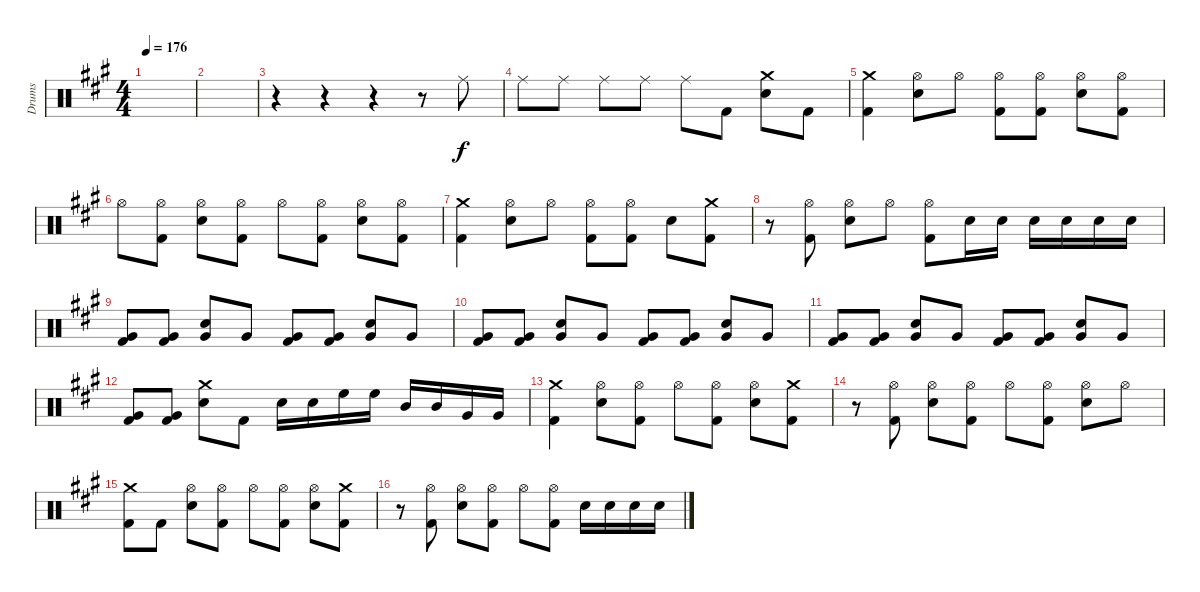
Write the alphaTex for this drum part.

\track ("Drums" "Drums") {instrument percussion}
\staff {score}
\articulation defaults
\ts (4 4)
\tempo 176
\clef neutral
\ks a
|
|
r.4 r.4 r.4 r.8 "Ride (middle)".8 |
"Ride (middle)".8 "Ride (middle)".8 "Ride (middle)".8 "Ride (middle)".8 "Ride (middle)".8 "Kick (hit) 2".8 ("Crash medium (hit)" "Electric Snare (hit)").8 "Kick (hit) 2".8 |
("Crash medium (hit)" "Kick (hit) 2").4 ("Hi-Hat (open)" "Electric Snare (hit)").8 "Hi-Hat (open)".8 ("Hi-Hat (open)" "Kick (hit) 2").8 ("Hi-Hat (open)" "Kick (hit) 2").8 ("Hi-Hat (open)" "Electric Snare (hit)").8 ("Hi-Hat (open)" "Kick (hit) 2").8 |
"Hi-Hat (open)".8 ("Hi-Hat (open)" "Kick (hit) 2").8 ("Hi-Hat (open)" "Electric Snare (hit)").8 ("Hi-Hat (open)" "Kick (hit) 2").8 "Hi-Hat (open)".8 ("Hi-Hat (open)" "Kick (hit) 2").8 ("Hi-Hat (open)" "Electric Snare (hit)").8 ("Hi-Hat (open)" "Kick (hit) 2").8 |
("Crash medium (hit)" "Kick (hit) 2").4 ("Hi-Hat (open)" "Electric Snare (hit)").8 "Hi-Hat (open)".8 ("Hi-Hat (open)" "Kick (hit) 2").8 ("Hi-Hat (open)" "Kick (hit) 2").8 "Electric Snare (hit)".8 ("Crash medium (hit)" "Kick (hit) 2").8 |
r.8 ("Hi-Hat (open)" "Kick (hit) 2").8 ("Hi-Hat (open)" "Electric Snare (hit)").8 "Hi-Hat (open)".8 ("Hi-Hat (open)" "Kick (hit) 2").8 "Electric Snare (hit)".16 "Electric Snare (hit)".16 "Electric Snare (hit)".16 "Electric Snare (hit)".16 "Electric Snare (hit)".16 "Electric Snare (hit)".16 |
("Very Low Tom (hit)" "Kick (hit) 2").8 ("Very Low Tom (hit)" "Kick (hit) 2").8 ("Electric Snare (hit)" "Very Low Tom (hit)").8 "Very Low Tom (hit)".8 ("Very Low Tom (hit)" "Kick (hit) 2").8 ("Very Low Tom (hit)" "Kick (hit) 2").8 ("Electric Snare (hit)" "Very Low Tom (hit)").8 "Very Low Tom (hit)".8 |
("Very Low Tom (hit)" "Kick (hit) 2").8 ("Very Low Tom (hit)" "Kick (hit) 2").8 ("Electric Snare (hit)" "Very Low Tom (hit)").8 "Very Low Tom (hit)".8 ("Very Low Tom (hit)" "Kick (hit) 2").8 ("Very Low Tom (hit)" "Kick (hit) 2").8 ("Electric Snare (hit)" "Very Low Tom (hit)").8 "Very Low Tom (hit)".8 |
("Very Low Tom (hit)" "Kick (hit) 2").8 ("Very Low Tom (hit)" "Kick (hit) 2").8 ("Electric Snare (hit)" "Very Low Tom (hit)").8 "Very Low Tom (hit)".8 ("Very Low Tom (hit)" "Kick (hit) 2").8 ("Very Low Tom (hit)" "Kick (hit) 2").8 ("Electric Snare (hit)" "Very Low Tom (hit)").8 "Very Low Tom (hit)".8 |
("Very Low Tom (hit)" "Kick (hit) 2").8 ("Very Low Tom (hit)" "Kick (hit) 2").8 ("Crash medium (hit)" "Electric Snare (hit)").8 "Kick (hit) 2".8 "Electric Snare (hit)".16 "Electric Snare (hit)".16 "High Floor Tom (hit)".16 "High Floor Tom (hit)".16 "Mid Tom (hit)".16 "Mid Tom (hit)".16 "Very Low Tom (hit)".16 "Very Low Tom (hit)".16 |
("Crash medium (hit)" "Kick (hit) 2").4 ("Hi-Hat (open)" "Electric Snare (hit)").8 ("Hi-Hat (open)" "Kick (hit) 2").8 "Hi-Hat (open)".8 ("Hi-Hat (open)" "Kick (hit) 2").8 ("Hi-Hat (open)" "Electric Snare (hit)").8 ("Crash medium (hit)" "Kick (hit) 2").8 |
r.8 ("Hi-Hat (open)" "Kick (hit) 2").8 ("Hi-Hat (open)" "Electric Snare (hit)").8 ("Hi-Hat (open)" "Kick (hit) 2").8 "Hi-Hat (open)".8 ("Hi-Hat (open)" "Kick (hit) 2").8 ("Hi-Hat (open)" "Electric Snare (hit)").8 "Hi-Hat (open)".8 |
("Crash medium (hit)" "Kick (hit) 2").8 "Kick (hit) 2".8 ("Hi-Hat (open)" "Electric Snare (hit)").8 ("Hi-Hat (open)" "Kick (hit) 2").8 "Hi-Hat (open)".8 ("Hi-Hat (open)" "Kick (hit) 2").8 ("Hi-Hat (open)" "Electric Snare (hit)").8 ("Crash medium (hit)" "Kick (hit) 2").8 |
r.8 ("Hi-Hat (open)" "Kick (hit) 2").8 ("Hi-Hat (open)" "Electric Snare (hit)").8 ("Hi-Hat (open)" "Kick (hit) 2").8 "Hi-Hat (open)".8 ("Hi-Hat (open)" "Kick (hit) 2").8 "Electric Snare (hit)".16 "Electric Snare (hit)".16 "Electric Snare (hit)".16 "Electric Snare (hit)".16
